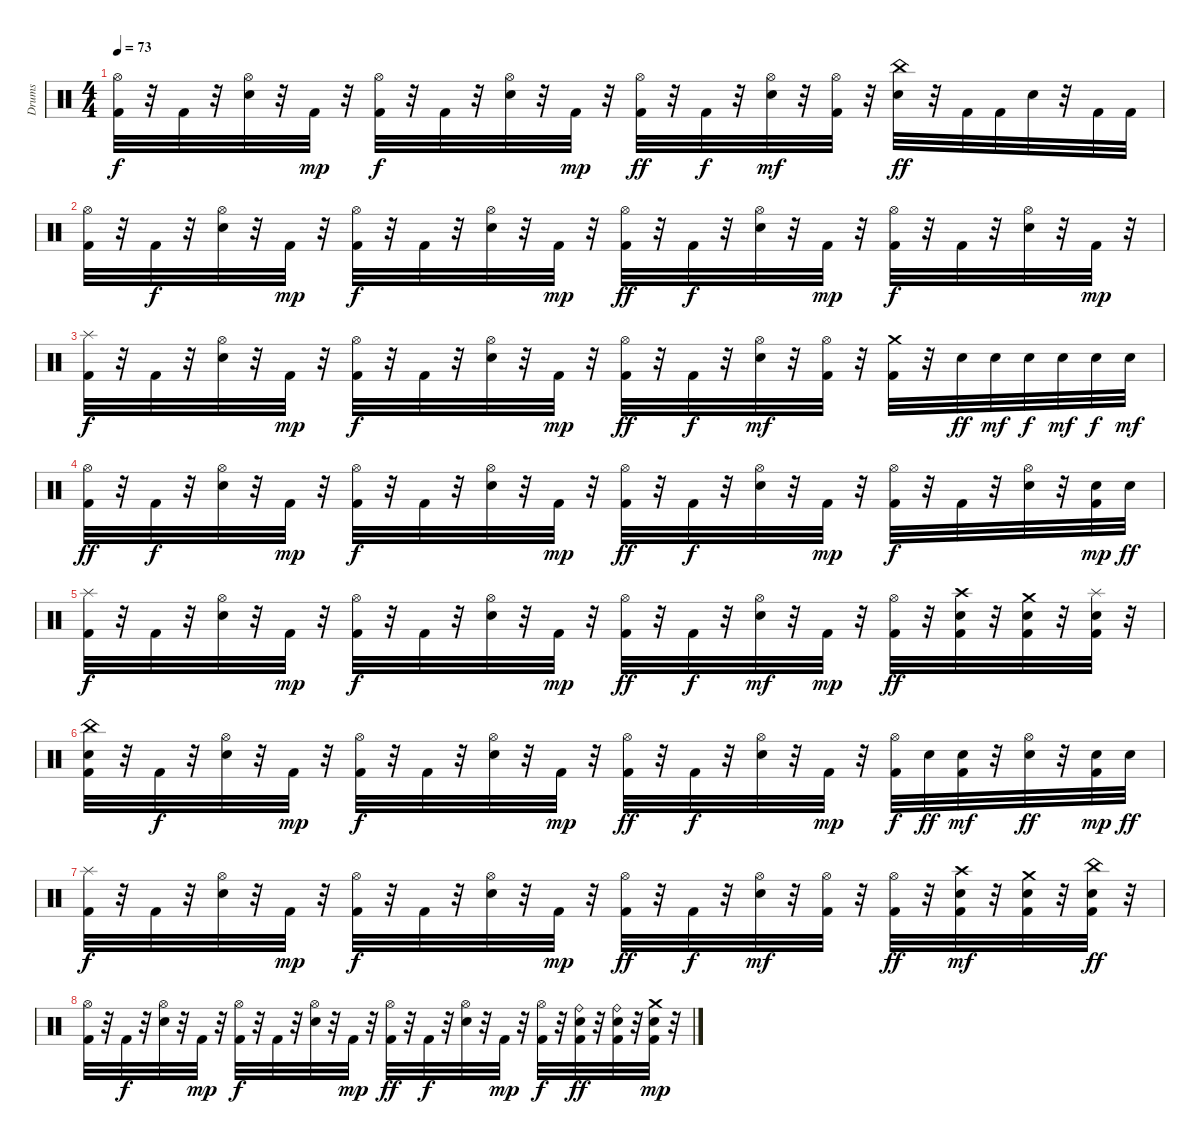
\track ("Drums" "Drums") {instrument percussion}
\staff {score}
\articulation defaults
\ts (4 4)
\tempo 73
\clef neutral
\ks c
("Hi-Hat (open)" "Kick (hit) 2").32{dy f} r.32 "Kick (hit) 2".32 r.32 ("Snare (hit) 2" "Hi-Hat (open)").32 r.32 "Kick (hit) 2".32{dy mp} r.32 ("Kick (hit) 2" "Hi-Hat (open)").32{dy f} r.32 "Kick (hit) 2".32 r.32 ("Snare (hit) 2" "Hi-Hat (open)").32 r.32 "Kick (hit) 2".32{dy mp} r.32 ("Kick (hit) 2" "Hi-Hat (open)").32{dy ff} r.32 "Kick (hit) 2".32{dy f} r.32 ("Snare (hit) 2" "Hi-Hat (open)").32{dy mf} r.32 ("Kick (hit) 2" "Hi-Hat (open)").32 r.32 ("Snare (hit) 2" "China (hit)").32{dy ff} r.32 "Kick (hit) 2".32 "Kick (hit) 2".32 "Snare (hit) 2".32 r.32 "Kick (hit) 2".32 "Kick (hit) 2".32 |
("Kick (hit) 2" "Hi-Hat (open)").32 r.32 "Kick (hit) 2".32{dy f} r.32 ("Hi-Hat (open)" "Snare (hit) 2").32 r.32 "Kick (hit) 2".32{dy mp} r.32 ("Hi-Hat (open)" "Kick (hit) 2").32{dy f} r.32 "Kick (hit) 2".32 r.32 ("Hi-Hat (open)" "Snare (hit) 2").32 r.32 "Kick (hit) 2".32{dy mp} r.32 ("Hi-Hat (open)" "Kick (hit) 2").32{dy ff} r.32 "Kick (hit) 2".32{dy f} r.32 ("Hi-Hat (open)" "Snare (hit) 2").32 r.32 "Kick (hit) 2".32{dy mp} r.32 ("Hi-Hat (open)" "Kick (hit) 2").32{dy f} r.32 "Kick (hit) 2".32 r.32 ("Hi-Hat (open)" "Snare (hit) 2").32 r.32 "Kick (hit) 2".32{dy mp} r.32 |
("Splash (hit)" "Kick (hit) 2").32{dy f} r.32 "Kick (hit) 2".32 r.32 ("Snare (hit) 2" "Hi-Hat (open)").32 r.32 "Kick (hit) 2".32{dy mp} r.32 ("Kick (hit) 2" "Hi-Hat (open)").32{dy f} r.32 "Kick (hit) 2".32 r.32 ("Snare (hit) 2" "Hi-Hat (open)").32 r.32 "Kick (hit) 2".32{dy mp} r.32 ("Kick (hit) 2" "Hi-Hat (open)").32{dy ff} r.32 "Kick (hit) 2".32{dy f} r.32 ("Snare (hit) 2" "Hi-Hat (open)").32{dy mf} r.32 ("Kick (hit) 2" "Hi-Hat (open)").32 r.32 ("Kick (hit) 2" "Crash medium (hit)").32 r.32 "Snare (hit) 2".32{dy ff} "Snare (hit) 2".32{dy mf} "Snare (hit) 2".32{dy f} "Snare (hit) 2".32{dy mf} "Snare (hit) 2".32{dy f} "Snare (hit) 2".32{dy mf} |
("Kick (hit) 2" "Hi-Hat (open)").32{dy ff} r.32 "Kick (hit) 2".32{dy f} r.32 ("Hi-Hat (open)" "Snare (hit) 2").32 r.32 "Kick (hit) 2".32{dy mp} r.32 ("Hi-Hat (open)" "Kick (hit) 2").32{dy f} r.32 "Kick (hit) 2".32 r.32 ("Hi-Hat (open)" "Snare (hit) 2").32 r.32 "Kick (hit) 2".32{dy mp} r.32 ("Hi-Hat (open)" "Kick (hit) 2").32{dy ff} r.32 "Kick (hit) 2".32{dy f} r.32 ("Hi-Hat (open)" "Snare (hit) 2").32 r.32 "Kick (hit) 2".32{dy mp} r.32 ("Hi-Hat (open)" "Kick (hit) 2").32{dy f} r.32 "Kick (hit) 2".32 r.32 ("Hi-Hat (open)" "Snare (hit) 2").32 r.32 ("Snare (hit) 2" "Kick (hit) 2").32{dy mp} "Snare (hit) 2".32{dy ff} |
("Splash (hit)" "Kick (hit) 2").32{dy f} r.32 "Kick (hit) 2".32 r.32 ("Snare (hit) 2" "Hi-Hat (open)").32 r.32 "Kick (hit) 2".32{dy mp} r.32 ("Kick (hit) 2" "Hi-Hat (open)").32{dy f} r.32 "Kick (hit) 2".32 r.32 ("Snare (hit) 2" "Hi-Hat (open)").32 r.32 "Kick (hit) 2".32{dy mp} r.32 ("Kick (hit) 2" "Hi-Hat (open)").32{dy ff} r.32 "Kick (hit) 2".32{dy f} r.32 ("Snare (hit) 2" "Hi-Hat (open)").32{dy mf} r.32 "Kick (hit) 2".32{dy mp} r.32 ("Hi-Hat (open)" "Kick (hit) 2").32{dy ff} r.32 ("Crash high (hit)" "Snare (hit) 2" "Kick (hit) 2").32 r.32 ("Crash medium (hit)" "Snare (hit) 2" "Kick (hit) 2").32 r.32 ("Splash (hit)" "Snare (hit) 2" "Kick (hit) 2").32 r.32 |
("China (hit)" "Snare (hit) 2" "Kick (hit) 2").32 r.32 "Kick (hit) 2".32{dy f} r.32 ("Hi-Hat (open)" "Snare (hit) 2").32 r.32 "Kick (hit) 2".32{dy mp} r.32 ("Hi-Hat (open)" "Kick (hit) 2").32{dy f} r.32 "Kick (hit) 2".32 r.32 ("Hi-Hat (open)" "Snare (hit) 2").32 r.32 "Kick (hit) 2".32{dy mp} r.32 ("Hi-Hat (open)" "Kick (hit) 2").32{dy ff} r.32 "Kick (hit) 2".32{dy f} r.32 ("Hi-Hat (open)" "Snare (hit) 2").32 r.32 "Kick (hit) 2".32{dy mp} r.32 ("Hi-Hat (open)" "Kick (hit) 2").32{dy f} "Snare (hit) 2".32{dy ff} ("Snare (hit) 2" "Kick (hit) 2").32{dy mf} r.32 ("Snare (hit) 2" "Hi-Hat (open)").32{dy ff} r.32 ("Snare (hit) 2" "Kick (hit) 2").32{dy mp} "Snare (hit) 2".32{dy ff} |
("Splash (hit)" "Kick (hit) 2").32{dy f} r.32 "Kick (hit) 2".32 r.32 ("Snare (hit) 2" "Hi-Hat (open)").32 r.32 "Kick (hit) 2".32{dy mp} r.32 ("Kick (hit) 2" "Hi-Hat (open)").32{dy f} r.32 "Kick (hit) 2".32 r.32 ("Snare (hit) 2" "Hi-Hat (open)").32 r.32 "Kick (hit) 2".32{dy mp} r.32 ("Kick (hit) 2" "Hi-Hat (open)").32{dy ff} r.32 "Kick (hit) 2".32{dy f} r.32 ("Snare (hit) 2" "Hi-Hat (open)").32{dy mf} r.32 ("Kick (hit) 2" "Hi-Hat (open)").32 r.32 ("Hi-Hat (open)" "Kick (hit) 2").32{dy ff} r.32 ("Crash high (hit)" "Kick (hit) 2" "Snare (hit) 2").32{dy mf} r.32 ("Crash medium (hit)" "Kick (hit) 2" "Snare (hit) 2").32 r.32 ("China (hit)" "Kick (hit) 2" "Snare (hit) 2").32{dy ff} r.32 |
("Kick (hit) 2" "Hi-Hat (open)").32 r.32 "Kick (hit) 2".32{dy f} r.32 ("Hi-Hat (open)" "Snare (hit) 2").32 r.32 "Kick (hit) 2".32{dy mp} r.32 ("Hi-Hat (open)" "Kick (hit) 2").32{dy f} r.32 "Kick (hit) 2".32 r.32 ("Hi-Hat (open)" "Snare (hit) 2").32 r.32 "Kick (hit) 2".32{dy mp} r.32 ("Hi-Hat (open)" "Kick (hit) 2").32{dy ff} r.32 "Kick (hit) 2".32{dy f} r.32 ("Hi-Hat (open)" "Snare (hit) 2").32 r.32 "Kick (hit) 2".32{dy mp} r.32 ("Hi-Hat (open)" "Kick (hit) 2").32{dy f} r.32 ("Ride (bell)" "Snare (hit) 2" "Kick (hit) 2").32{dy ff} r.32 ("Ride (bell)" "Kick (hit) 2" "Snare (hit) 2").32 r.32 ("Crash medium (hit)" "Snare (hit) 2" "Kick (hit) 2").32{dy mp} r.32
